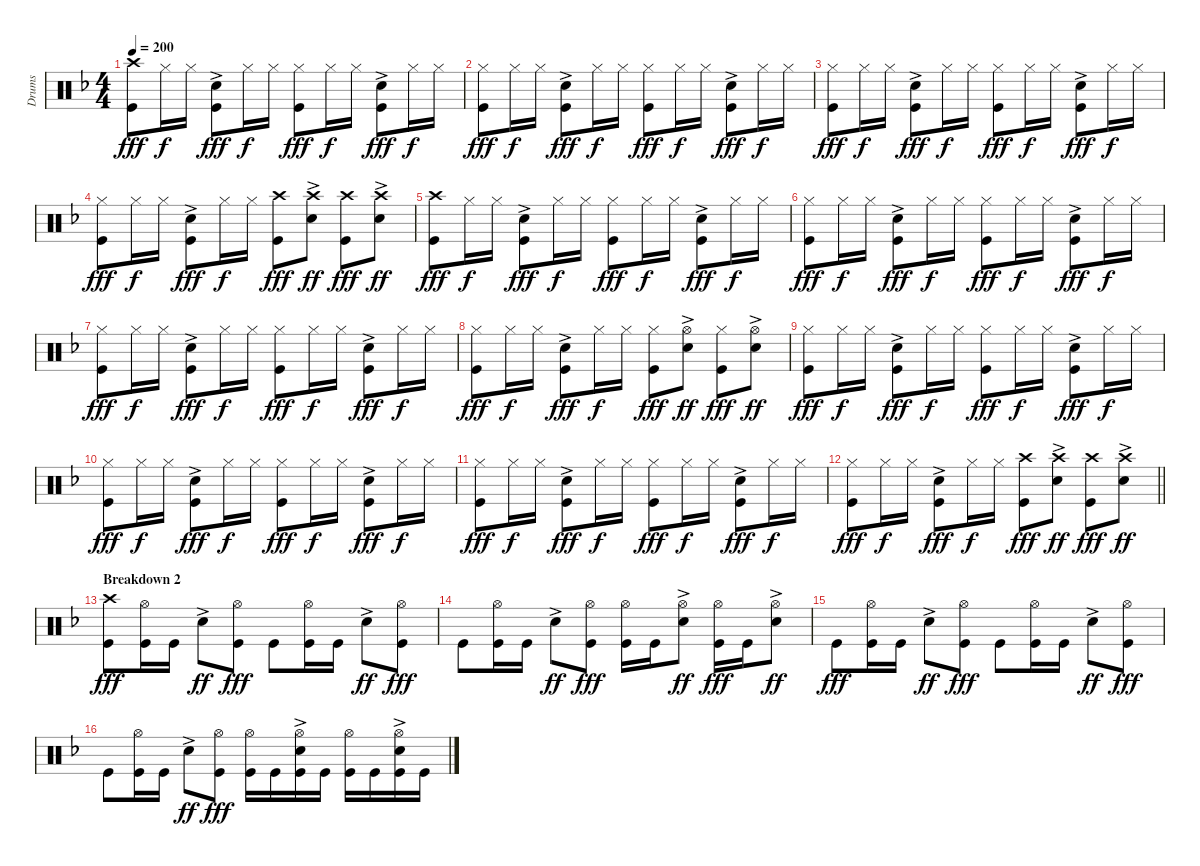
\track ("Drums" "Drums") {instrument percussion bank 25}
\staff {score}
\articulation defaults
\ts (4 4)
\tempo 200
\clef neutral
\ks dminor
("Crash high (hit)" "Kick (hit)").8{dy fff} "Hi-Hat (closed)".16{dy f} "Hi-Hat (closed)".16 ("Snare (hit) 2"{ac} "Kick (hit)").8{dy fff} "Hi-Hat (closed)".16{dy f} "Hi-Hat (closed)".16 ("Hi-Hat (closed)" "Kick (hit)").8{dy fff} "Hi-Hat (closed)".16{dy f} "Hi-Hat (closed)".16 ("Snare (hit) 2"{ac} "Kick (hit)").8{dy fff} "Hi-Hat (closed)".16{dy f} "Hi-Hat (closed)".16 |
("Hi-Hat (closed)" "Kick (hit)").8{dy fff} "Hi-Hat (closed)".16{dy f} "Hi-Hat (closed)".16 ("Snare (hit) 2"{ac} "Kick (hit)").8{dy fff} "Hi-Hat (closed)".16{dy f} "Hi-Hat (closed)".16 ("Hi-Hat (closed)" "Kick (hit)").8{dy fff} "Hi-Hat (closed)".16{dy f} "Hi-Hat (closed)".16 ("Snare (hit) 2"{ac} "Kick (hit)").8{dy fff} "Hi-Hat (closed)".16{dy f} "Hi-Hat (closed)".16 |
("Hi-Hat (closed)" "Kick (hit)").8{dy fff} "Hi-Hat (closed)".16{dy f} "Hi-Hat (closed)".16 ("Snare (hit) 2"{ac} "Kick (hit)").8{dy fff} "Hi-Hat (closed)".16{dy f} "Hi-Hat (closed)".16 ("Hi-Hat (closed)" "Kick (hit)").8{dy fff} "Hi-Hat (closed)".16{dy f} "Hi-Hat (closed)".16 ("Snare (hit) 2"{ac} "Kick (hit)").8{dy fff} "Hi-Hat (closed)".16{dy f} "Hi-Hat (closed)".16 |
("Hi-Hat (closed)" "Kick (hit)").8{dy fff} "Hi-Hat (closed)".16{dy f} "Hi-Hat (closed)".16 ("Snare (hit) 2"{ac} "Kick (hit)").8{dy fff} "Hi-Hat (closed)".16{dy f} "Hi-Hat (closed)".16 ("Crash high (hit)" "Kick (hit)").8{dy fff} ("Crash high (hit)" "Snare (hit) 2"{ac}).8{dy ff} ("Crash high (hit)" "Kick (hit)").8{dy fff} ("Crash high (hit)" "Snare (hit) 2"{ac}).8{dy ff} |
("Crash high (hit)" "Kick (hit)").8{dy fff} "Hi-Hat (closed)".16{dy f} "Hi-Hat (closed)".16 ("Snare (hit) 2"{ac} "Kick (hit)").8{dy fff} "Hi-Hat (closed)".16{dy f} "Hi-Hat (closed)".16 ("Hi-Hat (closed)" "Kick (hit)").8{dy fff} "Hi-Hat (closed)".16{dy f} "Hi-Hat (closed)".16 ("Snare (hit) 2"{ac} "Kick (hit)").8{dy fff} "Hi-Hat (closed)".16{dy f} "Hi-Hat (closed)".16 |
("Hi-Hat (closed)" "Kick (hit)").8{dy fff} "Hi-Hat (closed)".16{dy f} "Hi-Hat (closed)".16 ("Snare (hit) 2"{ac} "Kick (hit)").8{dy fff} "Hi-Hat (closed)".16{dy f} "Hi-Hat (closed)".16 ("Hi-Hat (closed)" "Kick (hit)").8{dy fff} "Hi-Hat (closed)".16{dy f} "Hi-Hat (closed)".16 ("Snare (hit) 2"{ac} "Kick (hit)").8{dy fff} "Hi-Hat (closed)".16{dy f} "Hi-Hat (closed)".16 |
("Hi-Hat (closed)" "Kick (hit)").8{dy fff} "Hi-Hat (closed)".16{dy f} "Hi-Hat (closed)".16 ("Snare (hit) 2"{ac} "Kick (hit)").8{dy fff} "Hi-Hat (closed)".16{dy f} "Hi-Hat (closed)".16 ("Hi-Hat (closed)" "Kick (hit)").8{dy fff} "Hi-Hat (closed)".16{dy f} "Hi-Hat (closed)".16 ("Snare (hit) 2"{ac} "Kick (hit)").8{dy fff} "Hi-Hat (closed)".16{dy f} "Hi-Hat (closed)".16 |
("Hi-Hat (closed)" "Kick (hit)").8{dy fff} "Hi-Hat (closed)".16{dy f} "Hi-Hat (closed)".16 ("Snare (hit) 2"{ac} "Kick (hit)").8{dy fff} "Hi-Hat (closed)".16{dy f} "Hi-Hat (closed)".16 ("Hi-Hat (closed)" "Kick (hit)").8{dy fff} ("Hi-Hat (open)" "Snare (hit) 2"{ac}).8{dy ff} ("Hi-Hat (closed)" "Kick (hit)").8{dy fff} ("Hi-Hat (open)" "Snare (hit) 2"{ac}).8{dy ff} |
("Hi-Hat (closed)" "Kick (hit)").8{dy fff} "Hi-Hat (closed)".16{dy f} "Hi-Hat (closed)".16 ("Snare (hit) 2"{ac} "Kick (hit)").8{dy fff} "Hi-Hat (closed)".16{dy f} "Hi-Hat (closed)".16 ("Hi-Hat (closed)" "Kick (hit)").8{dy fff} "Hi-Hat (closed)".16{dy f} "Hi-Hat (closed)".16 ("Snare (hit) 2"{ac} "Kick (hit)").8{dy fff} "Hi-Hat (closed)".16{dy f} "Hi-Hat (closed)".16 |
("Hi-Hat (closed)" "Kick (hit)").8{dy fff} "Hi-Hat (closed)".16{dy f} "Hi-Hat (closed)".16 ("Snare (hit) 2"{ac} "Kick (hit)").8{dy fff} "Hi-Hat (closed)".16{dy f} "Hi-Hat (closed)".16 ("Hi-Hat (closed)" "Kick (hit)").8{dy fff} "Hi-Hat (closed)".16{dy f} "Hi-Hat (closed)".16 ("Snare (hit) 2"{ac} "Kick (hit)").8{dy fff} "Hi-Hat (closed)".16{dy f} "Hi-Hat (closed)".16 |
("Hi-Hat (closed)" "Kick (hit)").8{dy fff} "Hi-Hat (closed)".16{dy f} "Hi-Hat (closed)".16 ("Snare (hit) 2"{ac} "Kick (hit)").8{dy fff} "Hi-Hat (closed)".16{dy f} "Hi-Hat (closed)".16 ("Hi-Hat (closed)" "Kick (hit)").8{dy fff} "Hi-Hat (closed)".16{dy f} "Hi-Hat (closed)".16 ("Snare (hit) 2"{ac} "Kick (hit)").8{dy fff} "Hi-Hat (closed)".16{dy f} "Hi-Hat (closed)".16 |
\barLineRight lightlight
("Hi-Hat (closed)" "Kick (hit)").8{dy fff} "Hi-Hat (closed)".16{dy f} "Hi-Hat (closed)".16 ("Snare (hit) 2"{ac} "Kick (hit)").8{dy fff} "Hi-Hat (closed)".16{dy f} "Hi-Hat (closed)".16 ("Crash high (hit)" "Kick (hit)").8{dy fff} ("Crash high (hit)" "Snare (hit) 2"{ac}).8{dy ff} ("Crash high (hit)" "Kick (hit)").8{dy fff} ("Crash high (hit)" "Snare (hit) 2"{ac}).8{dy ff} |
\section ("" "Breakdown 2")
("Crash high (hit)" "Kick (hit)").8{dy fff} ("Hi-Hat (open)" "Kick (hit)").16 "Kick (hit)".16 "Snare (hit) 2"{ac}.8{dy ff} ("Hi-Hat (open)" "Kick (hit)").8{dy fff} "Kick (hit)".8 ("Hi-Hat (open)" "Kick (hit)").16 "Kick (hit)".16 "Snare (hit) 2"{ac}.8{dy ff} ("Hi-Hat (open)" "Kick (hit)").8{dy fff} |
"Kick (hit)".8 ("Hi-Hat (open)" "Kick (hit)").16 "Kick (hit)".16 "Snare (hit) 2"{ac}.8{dy ff} ("Hi-Hat (open)" "Kick (hit)").8{dy fff} ("Hi-Hat (open)" "Kick (hit)").16 "Kick (hit)".16 ("Hi-Hat (open)" "Snare (hit) 2"{ac}).8{dy ff} ("Hi-Hat (open)" "Kick (hit)").16{dy fff} "Kick (hit)".16 ("Hi-Hat (open)" "Snare (hit) 2"{ac}).8{dy ff} |
"Kick (hit)".8{dy fff} ("Hi-Hat (open)" "Kick (hit)").16 "Kick (hit)".16 "Snare (hit) 2"{ac}.8{dy ff} ("Hi-Hat (open)" "Kick (hit)").8{dy fff} "Kick (hit)".8 ("Hi-Hat (open)" "Kick (hit)").16 "Kick (hit)".16 "Snare (hit) 2"{ac}.8{dy ff} ("Hi-Hat (open)" "Kick (hit)").8{dy fff} |
"Kick (hit)".8 ("Hi-Hat (open)" "Kick (hit)").16 "Kick (hit)".16 "Snare (hit) 2"{ac}.8{dy ff} ("Hi-Hat (open)" "Kick (hit)").8{dy fff} ("Hi-Hat (open)" "Kick (hit)").16 "Kick (hit)".16 ("Hi-Hat (open)" "Snare (hit) 2"{ac} "Kick (hit)").16 "Kick (hit)".16 ("Hi-Hat (open)" "Kick (hit)").16 "Kick (hit)".16 ("Hi-Hat (open)" "Snare (hit) 2"{ac} "Kick (hit)").16 "Kick (hit)".16
